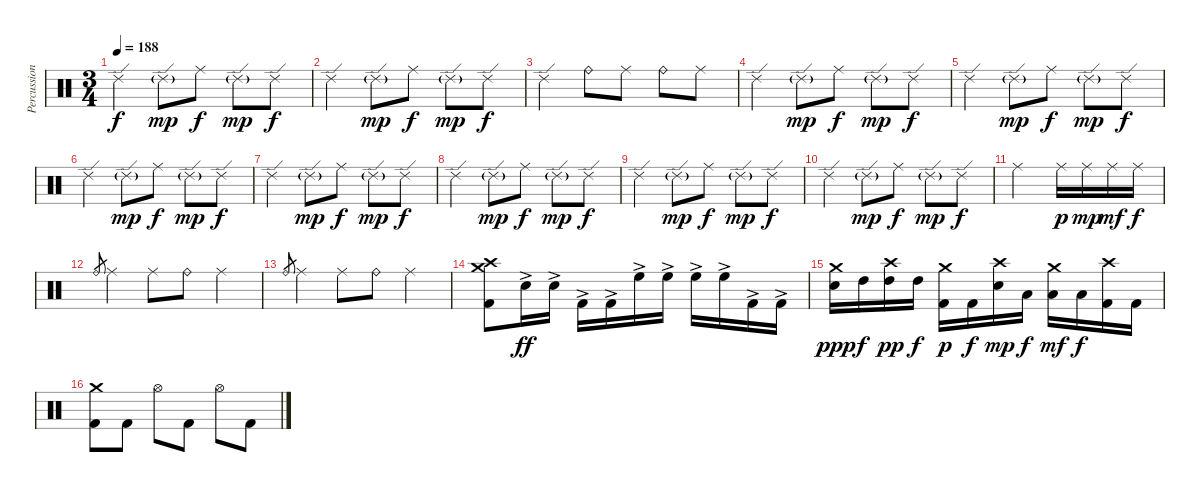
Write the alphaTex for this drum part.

\track ("Percussion" "Percussion") {instrument percussion}
\staff {score}
\articulation defaults
\ts (3 4)
\tempo 188
\clef neutral
\ks c "Ride (edge) 2".4{dy f} "Ride (edge) 2"{g}.8{dy mp} "Ride (middle)".8{dy f} "Ride (edge) 2"{g}.8{dy mp} "Ride (edge) 2".8{dy f}
|
"Ride (edge) 2".4 "Ride (edge) 2"{g}.8{dy mp} "Ride (middle)".8{dy f} "Ride (edge) 2"{g}.8{dy mp} "Ride (edge) 2".8{dy f} |
"Ride (edge) 2".4 "Ride (bell)".8 "Ride (middle)".8 "Ride (bell)".8 "Ride (middle)".8 |
"Ride (edge) 2".4 "Ride (edge) 2"{g}.8{dy mp} "Ride (middle)".8{dy f} "Ride (edge) 2"{g}.8{dy mp} "Ride (edge) 2".8{dy f} |
"Ride (edge) 2".4 "Ride (edge) 2"{g}.8{dy mp} "Ride (middle)".8{dy f} "Ride (edge) 2"{g}.8{dy mp} "Ride (edge) 2".8{dy f} |
"Ride (edge) 2".4 "Ride (edge) 2"{g}.8{dy mp} "Ride (middle)".8{dy f} "Ride (edge) 2"{g}.8{dy mp} "Ride (edge) 2".8{dy f} |
"Ride (edge) 2".4 "Ride (edge) 2"{g}.8{dy mp} "Ride (middle)".8{dy f} "Ride (edge) 2"{g}.8{dy mp} "Ride (edge) 2".8{dy f} |
"Ride (edge) 2".4 "Ride (edge) 2"{g}.8{dy mp} "Ride (middle)".8{dy f} "Ride (edge) 2"{g}.8{dy mp} "Ride (edge) 2".8{dy f} |
"Ride (edge) 2".4 "Ride (edge) 2"{g}.8{dy mp} "Ride (middle)".8{dy f} "Ride (edge) 2"{g}.8{dy mp} "Ride (edge) 2".8{dy f} |
"Ride (edge) 2".4 "Ride (edge) 2"{g}.8{dy mp} "Ride (middle)".8{dy f} "Ride (edge) 2"{g}.8{dy mp} "Ride (edge) 2".8{dy f} |
"Ride (middle)".2 "Ride (middle)".16{dy p} "Ride (middle)".16{dy mp} "Ride (middle)".16{dy mf} "Ride (middle)".16{dy f} |
"Ride (bell)".8{gr} "Ride (middle)".4 "Ride (middle)".8 "Ride (bell)".8 "Ride (middle)".4 |
"Ride (bell)".8{gr} "Ride (middle)".4 "Ride (middle)".8 "Ride (bell)".8 "Ride (middle)".4 |
("Crash high (hit)" "Crash medium (hit)" "Kick (hit) 2").8 "Electric Snare (hit)"{ac}.16{dy ff} "Electric Snare (hit)"{ac}.16 "Kick (hit) 2"{ac}.16 "Kick (hit) 2"{ac}.16 "High Floor Tom (hit)"{ac}.16 "High Floor Tom (hit)"{ac}.16 "High Floor Tom (hit)"{ac}.16 "High Floor Tom (hit)"{ac}.16 "Kick (hit) 2"{ac}.16 "Kick (hit) 2"{ac}.16 |
("Crash medium (hit)" "Electric Snare (hit)").16{dy ppp} "High Tom (hit)".16{dy f} ("Crash high (hit)" "High Tom (hit)").16{dy pp} "High Tom (hit)".16{dy f} ("Crash medium (hit)" "Kick (hit) 2").16{dy p} "Kick (hit) 2".16{dy f} ("Crash high (hit)" "Electric Snare (hit)").16{dy mp} "Low Tom (hit)".16{dy f} ("Crash medium (hit)" "Low Tom (hit)").16{dy mf} "Low Tom (hit)".16{dy f} ("Crash high (hit)" "Kick (hit) 2").16 "Kick (hit) 2".16 |
("Crash medium (hit)" "Kick (hit) 2").8 "Kick (hit) 2".8 "Hi-Hat (open)".8 "Kick (hit) 2".8 "Hi-Hat (open)".8 "Kick (hit) 2".8
